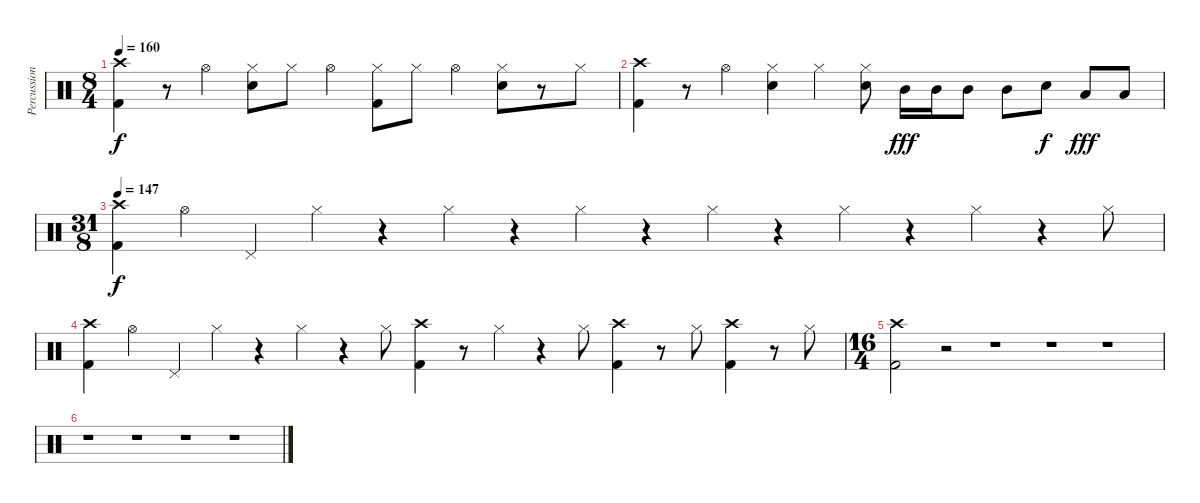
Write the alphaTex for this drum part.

\track ("Percussion" "Percussion") {instrument percussion}
\staff {score}
\articulation defaults
\ts (8 4)
\tempo 160
\clef neutral
\ks c
("Crash high (hit)" "Kick (hit) 2").4{dy f} r.8 "Hi-Hat (open)".4 ("Hi-Hat (closed)" "Electric Snare (hit)").8{beam merge} "Hi-Hat (closed)".8 "Hi-Hat (open)".4 ("Hi-Hat (closed)" "Kick (hit) 2").8{beam merge} "Hi-Hat (closed)".8 "Hi-Hat (open)".4 ("Hi-Hat (closed)" "Electric Snare (hit)").8{beam merge} r.8{beam merge} "Hi-Hat (closed)".8 |
("Crash high (hit)" "Kick (hit) 2").4 r.8 "Hi-Hat (open)".4 ("Hi-Hat (closed)" "Electric Snare (hit)").4 "Hi-Hat (closed)".4 ("Hi-Hat (closed)" "Electric Snare (hit)").8 "Mid Tom (hit)".16{dy fff} "Mid Tom (hit)".16 "Mid Tom (hit)".8 "Mid Tom (hit)".8 "Electric Snare (hit)".8{dy f} "Low Tom (hit)".8{dy fff} "Low Tom (hit)".8 |
\ts (31 8)
\tempo 147
("Crash high (hit)" "Kick (hit) 2").4{dy f} "Hi-Hat (open)".4 "Pedal Hi-Hat (hit)".4 "Hi-Hat (closed)".4 r.4 "Hi-Hat (closed)".4 r.4 "Hi-Hat (closed)".4 r.4 "Hi-Hat (closed)".4 r.4 "Hi-Hat (closed)".4 r.4 "Hi-Hat (closed)".4 r.4 "Hi-Hat (closed)".8 |
("Crash high (hit)" "Kick (hit) 2").4 "Hi-Hat (open)".4 "Pedal Hi-Hat (hit)".4 "Hi-Hat (closed)".4 r.4 "Hi-Hat (closed)".4 r.4 "Hi-Hat (closed)".8 ("Crash high (hit)" "Kick (hit) 2").4 r.8 "Hi-Hat (closed)".4 r.4 "Hi-Hat (closed)".8 ("Crash high (hit)" "Kick (hit) 2").4 r.8 "Hi-Hat (closed)".8 ("Crash high (hit)" "Kick (hit) 2").4 r.8 "Hi-Hat (closed)".8 |
\ts (16 4)
("Crash high (hit)" "Kick (hit) 2").2 r.2 r.1 r.1 r.1 |
r.1 r.1 r.1 r.1
